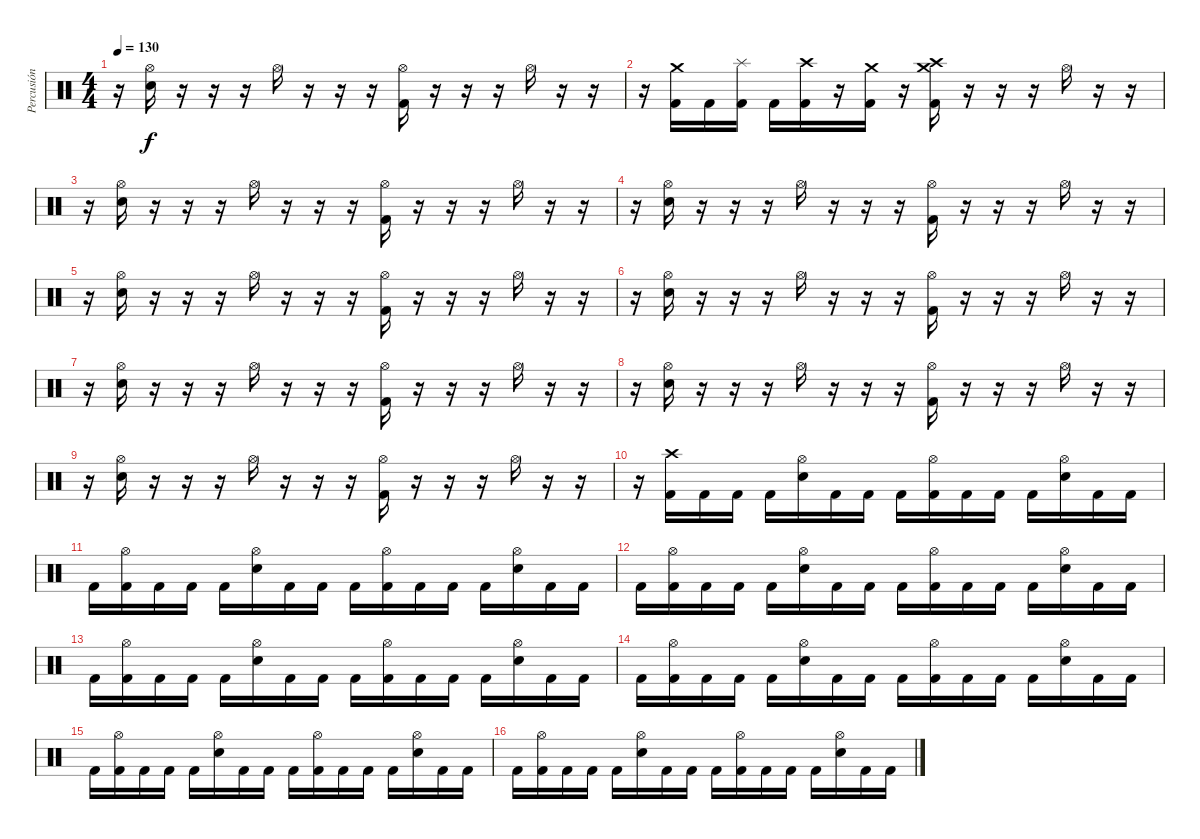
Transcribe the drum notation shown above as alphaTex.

\track ("Percusión (opcional)" "Percusión ") {mute instrument percussion}
\staff {score}
\articulation defaults
\ts (4 4)
\tempo 130
\clef neutral
\ks c
r.16{dy f} ("Hi-Hat (open)" "Electric Snare (hit)").16 r.16 r.16 r.16 "Hi-Hat (open)".16 r.16 r.16 r.16 ("Hi-Hat (open)" "Kick (hit) 2").16 r.16 r.16 r.16 "Hi-Hat (open)".16 r.16 r.16 |
r.16 ("Crash medium (hit)" "Kick (hit) 2").16 "Kick (hit) 2".16 ("Splash (hit)" "Kick (hit) 2").16 "Kick (hit) 2".16 ("Crash high (hit)" "Kick (hit) 2").16 r.16 ("Crash medium (hit)" "Kick (hit) 2").16 r.16 ("Crash medium (hit)" "Crash high (hit)" "Kick (hit) 2").16 r.16 r.16 r.16 "Hi-Hat (open)".16 r.16 r.16 |
r.16 ("Hi-Hat (open)" "Electric Snare (hit)").16 r.16 r.16 r.16 "Hi-Hat (open)".16 r.16 r.16 r.16 ("Hi-Hat (open)" "Kick (hit) 2").16 r.16 r.16 r.16 "Hi-Hat (open)".16 r.16 r.16 |
r.16 ("Hi-Hat (open)" "Electric Snare (hit)").16 r.16 r.16 r.16 "Hi-Hat (open)".16 r.16 r.16 r.16 ("Hi-Hat (open)" "Kick (hit) 2").16 r.16 r.16 r.16 "Hi-Hat (open)".16 r.16 r.16 |
r.16 ("Hi-Hat (open)" "Electric Snare (hit)").16 r.16 r.16 r.16 "Hi-Hat (open)".16 r.16 r.16 r.16 ("Hi-Hat (open)" "Kick (hit) 2").16 r.16 r.16 r.16 "Hi-Hat (open)".16 r.16 r.16 |
r.16 ("Hi-Hat (open)" "Electric Snare (hit)").16 r.16 r.16 r.16 "Hi-Hat (open)".16 r.16 r.16 r.16 ("Hi-Hat (open)" "Kick (hit) 2").16 r.16 r.16 r.16 "Hi-Hat (open)".16 r.16 r.16 |
r.16 ("Hi-Hat (open)" "Electric Snare (hit)").16 r.16 r.16 r.16 "Hi-Hat (open)".16 r.16 r.16 r.16 ("Hi-Hat (open)" "Kick (hit) 2").16 r.16 r.16 r.16 "Hi-Hat (open)".16 r.16 r.16 |
r.16 ("Hi-Hat (open)" "Electric Snare (hit)").16 r.16 r.16 r.16 "Hi-Hat (open)".16 r.16 r.16 r.16 ("Hi-Hat (open)" "Kick (hit) 2").16 r.16 r.16 r.16 "Hi-Hat (open)".16 r.16 r.16 |
r.16 ("Hi-Hat (open)" "Electric Snare (hit)").16 r.16 r.16 r.16 "Hi-Hat (open)".16 r.16 r.16 r.16 ("Hi-Hat (open)" "Kick (hit) 2").16 r.16 r.16 r.16 "Hi-Hat (open)".16 r.16 r.16 |
r.16 ("Crash high (hit)" "Kick (hit) 2").16 "Kick (hit) 2".16 "Kick (hit) 2".16 "Kick (hit) 2".16 ("Hi-Hat (open)" "Electric Snare (hit)").16 "Kick (hit) 2".16 "Kick (hit) 2".16 "Kick (hit) 2".16 ("Hi-Hat (open)" "Kick (hit) 2").16 "Kick (hit) 2".16 "Kick (hit) 2".16 "Kick (hit) 2".16 ("Hi-Hat (open)" "Electric Snare (hit)").16 "Kick (hit) 2".16 "Kick (hit) 2".16 |
"Kick (hit) 2".16 ("Hi-Hat (open)" "Kick (hit) 2").16 "Kick (hit) 2".16 "Kick (hit) 2".16 "Kick (hit) 2".16 ("Hi-Hat (open)" "Electric Snare (hit)").16 "Kick (hit) 2".16 "Kick (hit) 2".16 "Kick (hit) 2".16 ("Hi-Hat (open)" "Kick (hit) 2").16 "Kick (hit) 2".16 "Kick (hit) 2".16 "Kick (hit) 2".16 ("Hi-Hat (open)" "Electric Snare (hit)").16 "Kick (hit) 2".16 "Kick (hit) 2".16 |
"Kick (hit) 2".16 ("Hi-Hat (open)" "Kick (hit) 2").16 "Kick (hit) 2".16 "Kick (hit) 2".16 "Kick (hit) 2".16 ("Hi-Hat (open)" "Electric Snare (hit)").16 "Kick (hit) 2".16 "Kick (hit) 2".16 "Kick (hit) 2".16 ("Hi-Hat (open)" "Kick (hit) 2").16 "Kick (hit) 2".16 "Kick (hit) 2".16 "Kick (hit) 2".16 ("Hi-Hat (open)" "Electric Snare (hit)").16 "Kick (hit) 2".16 "Kick (hit) 2".16 |
"Kick (hit) 2".16 ("Hi-Hat (open)" "Kick (hit) 2").16 "Kick (hit) 2".16 "Kick (hit) 2".16 "Kick (hit) 2".16 ("Hi-Hat (open)" "Electric Snare (hit)").16 "Kick (hit) 2".16 "Kick (hit) 2".16 "Kick (hit) 2".16 ("Hi-Hat (open)" "Kick (hit) 2").16 "Kick (hit) 2".16 "Kick (hit) 2".16 "Kick (hit) 2".16 ("Hi-Hat (open)" "Electric Snare (hit)").16 "Kick (hit) 2".16 "Kick (hit) 2".16 |
"Kick (hit) 2".16 ("Hi-Hat (open)" "Kick (hit) 2").16 "Kick (hit) 2".16 "Kick (hit) 2".16 "Kick (hit) 2".16 ("Hi-Hat (open)" "Electric Snare (hit)").16 "Kick (hit) 2".16 "Kick (hit) 2".16 "Kick (hit) 2".16 ("Hi-Hat (open)" "Kick (hit) 2").16 "Kick (hit) 2".16 "Kick (hit) 2".16 "Kick (hit) 2".16 ("Hi-Hat (open)" "Electric Snare (hit)").16 "Kick (hit) 2".16 "Kick (hit) 2".16 |
"Kick (hit) 2".16 ("Hi-Hat (open)" "Kick (hit) 2").16 "Kick (hit) 2".16 "Kick (hit) 2".16 "Kick (hit) 2".16 ("Hi-Hat (open)" "Electric Snare (hit)").16 "Kick (hit) 2".16 "Kick (hit) 2".16 "Kick (hit) 2".16 ("Hi-Hat (open)" "Kick (hit) 2").16 "Kick (hit) 2".16 "Kick (hit) 2".16 "Kick (hit) 2".16 ("Hi-Hat (open)" "Electric Snare (hit)").16 "Kick (hit) 2".16 "Kick (hit) 2".16 |
"Kick (hit) 2".16 ("Hi-Hat (open)" "Kick (hit) 2").16 "Kick (hit) 2".16 "Kick (hit) 2".16 "Kick (hit) 2".16 ("Hi-Hat (open)" "Electric Snare (hit)").16 "Kick (hit) 2".16 "Kick (hit) 2".16 "Kick (hit) 2".16 ("Hi-Hat (open)" "Kick (hit) 2").16 "Kick (hit) 2".16 "Kick (hit) 2".16 "Kick (hit) 2".16 ("Hi-Hat (open)" "Electric Snare (hit)").16 "Kick (hit) 2".16 "Kick (hit) 2".16
